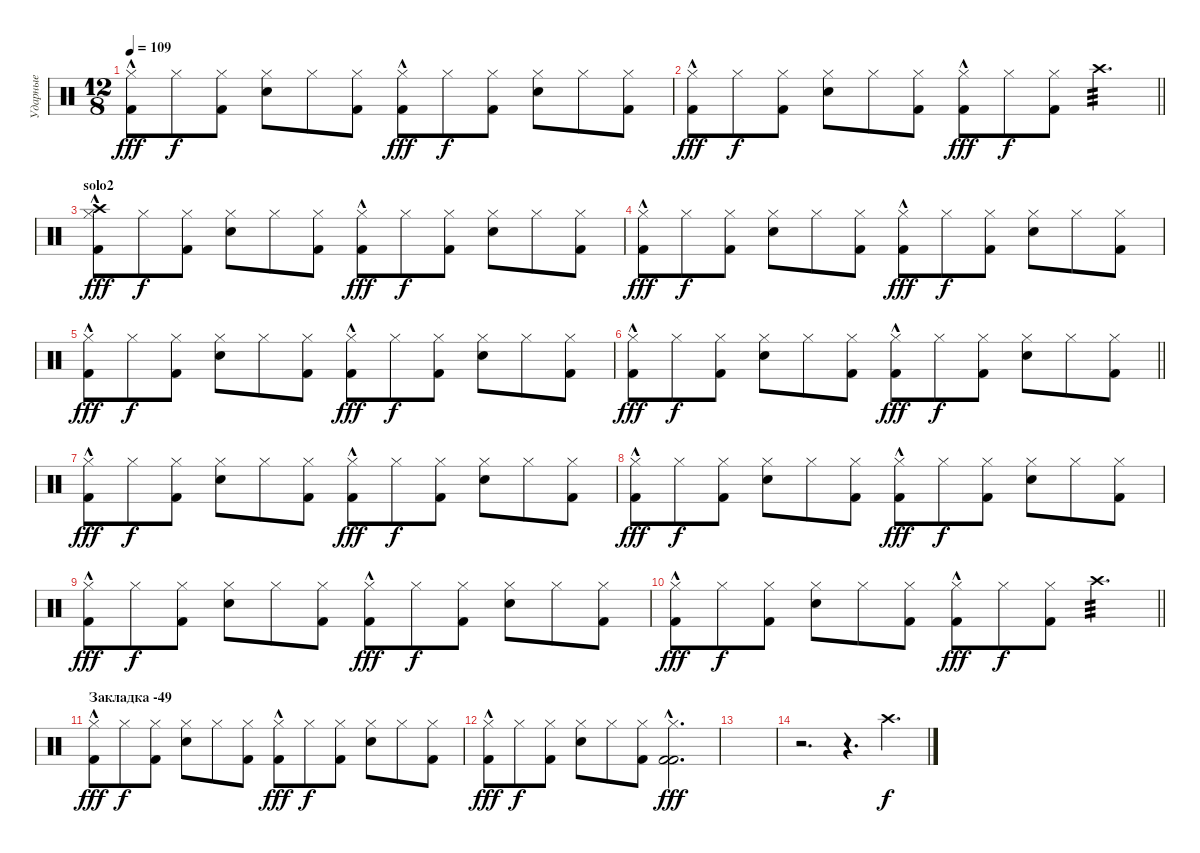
\track ("Ударные" "Ударные") {instrument percussion}
\staff {score}
\articulation defaults
\ts (12 8)
\tempo 109
\clef neutral
\ks c
("Hi-Hat (closed)" "Kick (hit) 2"{hac}).8{dy fff} "Hi-Hat (closed)".8{dy f} ("Hi-Hat (closed)" "Kick (hit) 2").8 ("Hi-Hat (closed)" "Electric Snare (hit)").8 "Hi-Hat (closed)".8 ("Hi-Hat (closed)" "Kick (hit) 2").8 ("Hi-Hat (closed)" "Kick (hit) 2"{hac}).8{dy fff} "Hi-Hat (closed)".8{dy f} ("Hi-Hat (closed)" "Kick (hit) 2").8 ("Hi-Hat (closed)" "Electric Snare (hit)").8 "Hi-Hat (closed)".8 ("Hi-Hat (closed)" "Kick (hit) 2").8 |
\barLineRight lightlight
("Hi-Hat (closed)" "Kick (hit) 2"{hac}).8{dy fff} "Hi-Hat (closed)".8{dy f} ("Hi-Hat (closed)" "Kick (hit) 2").8 ("Hi-Hat (closed)" "Electric Snare (hit)").8 "Hi-Hat (closed)".8 ("Hi-Hat (closed)" "Kick (hit) 2").8 ("Hi-Hat (closed)" "Kick (hit) 2"{hac}).8{dy fff} "Hi-Hat (closed)".8{dy f} ("Hi-Hat (closed)" "Kick (hit) 2").8{volume 0} "Crash high (hit)".4{d tp 3 volume 9} |
\section ("" "solo2")
("Hi-Hat (closed)" "Kick (hit) 2"{hac} "Crash high (hit)").8{dy fff} "Hi-Hat (closed)".8{dy f} ("Hi-Hat (closed)" "Kick (hit) 2").8 ("Hi-Hat (closed)" "Electric Snare (hit)").8 "Hi-Hat (closed)".8 ("Hi-Hat (closed)" "Kick (hit) 2").8 ("Hi-Hat (closed)" "Kick (hit) 2"{hac}).8{dy fff} "Hi-Hat (closed)".8{dy f} ("Hi-Hat (closed)" "Kick (hit) 2").8 ("Hi-Hat (closed)" "Electric Snare (hit)").8 "Hi-Hat (closed)".8 ("Hi-Hat (closed)" "Kick (hit) 2").8 |
("Hi-Hat (closed)" "Kick (hit) 2"{hac}).8{dy fff} "Hi-Hat (closed)".8{dy f} ("Hi-Hat (closed)" "Kick (hit) 2").8 ("Hi-Hat (closed)" "Electric Snare (hit)").8 "Hi-Hat (closed)".8 ("Hi-Hat (closed)" "Kick (hit) 2").8 ("Hi-Hat (closed)" "Kick (hit) 2"{hac}).8{dy fff} "Hi-Hat (closed)".8{dy f} ("Hi-Hat (closed)" "Kick (hit) 2").8 ("Hi-Hat (closed)" "Electric Snare (hit)").8 "Hi-Hat (closed)".8 ("Hi-Hat (closed)" "Kick (hit) 2").8 |
("Hi-Hat (closed)" "Kick (hit) 2"{hac}).8{dy fff} "Hi-Hat (closed)".8{dy f} ("Hi-Hat (closed)" "Kick (hit) 2").8 ("Hi-Hat (closed)" "Electric Snare (hit)").8 "Hi-Hat (closed)".8 ("Hi-Hat (closed)" "Kick (hit) 2").8 ("Hi-Hat (closed)" "Kick (hit) 2"{hac}).8{dy fff} "Hi-Hat (closed)".8{dy f} ("Hi-Hat (closed)" "Kick (hit) 2").8 ("Hi-Hat (closed)" "Electric Snare (hit)").8 "Hi-Hat (closed)".8 ("Hi-Hat (closed)" "Kick (hit) 2").8 |
\barLineRight lightlight
("Hi-Hat (closed)" "Kick (hit) 2"{hac}).8{dy fff} "Hi-Hat (closed)".8{dy f} ("Hi-Hat (closed)" "Kick (hit) 2").8 ("Hi-Hat (closed)" "Electric Snare (hit)").8 "Hi-Hat (closed)".8 ("Hi-Hat (closed)" "Kick (hit) 2").8 ("Hi-Hat (closed)" "Kick (hit) 2"{hac}).8{dy fff} "Hi-Hat (closed)".8{dy f} ("Hi-Hat (closed)" "Kick (hit) 2").8 ("Hi-Hat (closed)" "Electric Snare (hit)").8 "Hi-Hat (closed)".8 ("Hi-Hat (closed)" "Kick (hit) 2").8 |
("Hi-Hat (closed)" "Kick (hit) 2"{hac}).8{dy fff} "Hi-Hat (closed)".8{dy f} ("Hi-Hat (closed)" "Kick (hit) 2").8 ("Hi-Hat (closed)" "Electric Snare (hit)").8 "Hi-Hat (closed)".8 ("Hi-Hat (closed)" "Kick (hit) 2").8 ("Hi-Hat (closed)" "Kick (hit) 2"{hac}).8{dy fff} "Hi-Hat (closed)".8{dy f} ("Hi-Hat (closed)" "Kick (hit) 2").8 ("Hi-Hat (closed)" "Electric Snare (hit)").8 "Hi-Hat (closed)".8 ("Hi-Hat (closed)" "Kick (hit) 2").8 |
("Hi-Hat (closed)" "Kick (hit) 2"{hac}).8{dy fff} "Hi-Hat (closed)".8{dy f} ("Hi-Hat (closed)" "Kick (hit) 2").8 ("Hi-Hat (closed)" "Electric Snare (hit)").8 "Hi-Hat (closed)".8 ("Hi-Hat (closed)" "Kick (hit) 2").8 ("Hi-Hat (closed)" "Kick (hit) 2"{hac}).8{dy fff} "Hi-Hat (closed)".8{dy f} ("Hi-Hat (closed)" "Kick (hit) 2").8 ("Hi-Hat (closed)" "Electric Snare (hit)").8 "Hi-Hat (closed)".8 ("Hi-Hat (closed)" "Kick (hit) 2").8 |
("Hi-Hat (closed)" "Kick (hit) 2"{hac}).8{dy fff} "Hi-Hat (closed)".8{dy f} ("Hi-Hat (closed)" "Kick (hit) 2").8 ("Hi-Hat (closed)" "Electric Snare (hit)").8 "Hi-Hat (closed)".8 ("Hi-Hat (closed)" "Kick (hit) 2").8 ("Hi-Hat (closed)" "Kick (hit) 2"{hac}).8{dy fff} "Hi-Hat (closed)".8{dy f} ("Hi-Hat (closed)" "Kick (hit) 2").8 ("Hi-Hat (closed)" "Electric Snare (hit)").8 "Hi-Hat (closed)".8 ("Hi-Hat (closed)" "Kick (hit) 2").8 |
\barLineRight lightlight
("Hi-Hat (closed)" "Kick (hit) 2"{hac}).8{dy fff} "Hi-Hat (closed)".8{dy f} ("Hi-Hat (closed)" "Kick (hit) 2").8 ("Hi-Hat (closed)" "Electric Snare (hit)").8 "Hi-Hat (closed)".8 ("Hi-Hat (closed)" "Kick (hit) 2").8 ("Hi-Hat (closed)" "Kick (hit) 2"{hac}).8{dy fff} "Hi-Hat (closed)".8{dy f} ("Hi-Hat (closed)" "Kick (hit) 2").8{volume 0} "Crash high (hit)".4{d tp 3 volume 9} |
\section ("" "Закладка -49")
("Hi-Hat (closed)" "Kick (hit) 2"{hac}).8{dy fff} "Hi-Hat (closed)".8{dy f} ("Hi-Hat (closed)" "Kick (hit) 2").8 ("Hi-Hat (closed)" "Electric Snare (hit)").8 "Hi-Hat (closed)".8 ("Hi-Hat (closed)" "Kick (hit) 2").8 ("Hi-Hat (closed)" "Kick (hit) 2"{hac}).8{dy fff} "Hi-Hat (closed)".8{dy f} ("Hi-Hat (closed)" "Kick (hit) 2").8 ("Hi-Hat (closed)" "Electric Snare (hit)").8 "Hi-Hat (closed)".8 ("Hi-Hat (closed)" "Kick (hit) 2").8 |
("Hi-Hat (closed)" "Kick (hit) 2"{hac}).8{dy fff} "Hi-Hat (closed)".8{dy f} ("Hi-Hat (closed)" "Kick (hit) 2").8 ("Hi-Hat (closed)" "Electric Snare (hit)").8 "Hi-Hat (closed)".8 ("Hi-Hat (closed)" "Kick (hit) 2").8 ("Hi-Hat (closed)" "Kick (hit) 2" "Kick (hit) 2"{hac}).2{d dy fff} |
|
r.2{d} r.4{d} "Crash high (hit)".4{d dy f}
